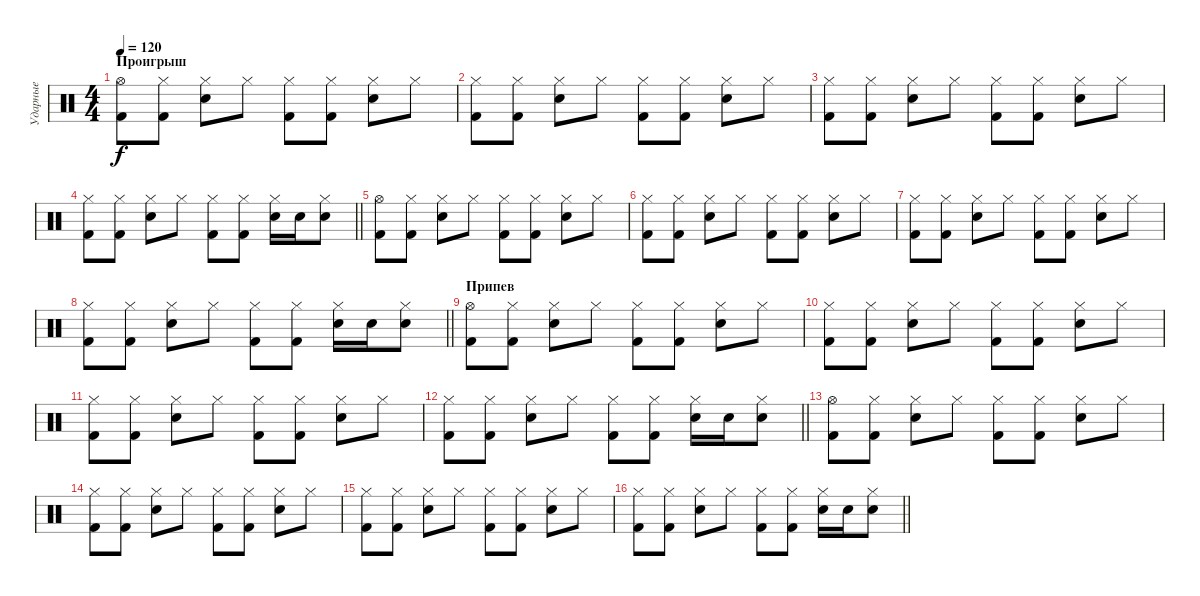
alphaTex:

\track ("Ударные" "Ударные") {instrument percussion}
\staff {score}
\articulation defaults
\ts (4 4)
\section ("" "Проигрыш")
\tempo 120
\clef neutral
\ks c
("Hi-Hat (open)" "Kick (hit) 2").8{dy f} ("Hi-Hat (closed)" "Kick (hit) 2").8 ("Hi-Hat (closed)" "Electric Snare (hit)").8 "Hi-Hat (closed)".8 ("Hi-Hat (closed)" "Kick (hit) 2").8 ("Hi-Hat (closed)" "Kick (hit) 2").8 ("Hi-Hat (closed)" "Electric Snare (hit)").8 "Hi-Hat (closed)".8 |
("Hi-Hat (closed)" "Kick (hit) 2").8 ("Hi-Hat (closed)" "Kick (hit) 2").8 ("Hi-Hat (closed)" "Electric Snare (hit)").8 "Hi-Hat (closed)".8 ("Hi-Hat (closed)" "Kick (hit) 2").8 ("Hi-Hat (closed)" "Kick (hit) 2").8 ("Hi-Hat (closed)" "Electric Snare (hit)").8 "Hi-Hat (closed)".8 |
("Hi-Hat (closed)" "Kick (hit) 2").8 ("Hi-Hat (closed)" "Kick (hit) 2").8 ("Hi-Hat (closed)" "Electric Snare (hit)").8 "Hi-Hat (closed)".8 ("Hi-Hat (closed)" "Kick (hit) 2").8 ("Hi-Hat (closed)" "Kick (hit) 2").8 ("Hi-Hat (closed)" "Electric Snare (hit)").8 "Hi-Hat (closed)".8 |
\barLineRight lightlight
("Hi-Hat (closed)" "Kick (hit) 2").8 ("Hi-Hat (closed)" "Kick (hit) 2").8 ("Hi-Hat (closed)" "Electric Snare (hit)").8 "Hi-Hat (closed)".8 ("Hi-Hat (closed)" "Kick (hit) 2").8 ("Hi-Hat (closed)" "Kick (hit) 2").8 ("Hi-Hat (closed)" "Electric Snare (hit)").16 "Snare (hit) 2".16 ("Hi-Hat (closed)" "Electric Snare (hit)").8 |
\section ("" "")
("Hi-Hat (open)" "Kick (hit) 2").8 ("Hi-Hat (closed)" "Kick (hit) 2").8 ("Hi-Hat (closed)" "Electric Snare (hit)").8 "Hi-Hat (closed)".8 ("Hi-Hat (closed)" "Kick (hit) 2").8 ("Hi-Hat (closed)" "Kick (hit) 2").8 ("Hi-Hat (closed)" "Electric Snare (hit)").8 "Hi-Hat (closed)".8 |
("Hi-Hat (closed)" "Kick (hit) 2").8 ("Hi-Hat (closed)" "Kick (hit) 2").8 ("Hi-Hat (closed)" "Electric Snare (hit)").8 "Hi-Hat (closed)".8 ("Hi-Hat (closed)" "Kick (hit) 2").8 ("Hi-Hat (closed)" "Kick (hit) 2").8 ("Hi-Hat (closed)" "Electric Snare (hit)").8 "Hi-Hat (closed)".8 |
("Hi-Hat (closed)" "Kick (hit) 2").8 ("Hi-Hat (closed)" "Kick (hit) 2").8 ("Hi-Hat (closed)" "Electric Snare (hit)").8 "Hi-Hat (closed)".8 ("Hi-Hat (closed)" "Kick (hit) 2").8 ("Hi-Hat (closed)" "Kick (hit) 2").8 ("Hi-Hat (closed)" "Electric Snare (hit)").8 "Hi-Hat (closed)".8 |
\barLineRight lightlight
("Hi-Hat (closed)" "Kick (hit) 2").8 ("Hi-Hat (closed)" "Kick (hit) 2").8 ("Hi-Hat (closed)" "Electric Snare (hit)").8 "Hi-Hat (closed)".8 ("Hi-Hat (closed)" "Kick (hit) 2").8 ("Hi-Hat (closed)" "Kick (hit) 2").8 ("Hi-Hat (closed)" "Electric Snare (hit)").16 "Snare (hit) 2".16 ("Hi-Hat (closed)" "Electric Snare (hit)").8 |
\section ("" "Припев")
("Hi-Hat (open)" "Kick (hit) 2").8 ("Hi-Hat (closed)" "Kick (hit) 2").8 ("Hi-Hat (closed)" "Electric Snare (hit)").8 "Hi-Hat (closed)".8 ("Hi-Hat (closed)" "Kick (hit) 2").8 ("Hi-Hat (closed)" "Kick (hit) 2").8 ("Hi-Hat (closed)" "Electric Snare (hit)").8 "Hi-Hat (closed)".8 |
("Hi-Hat (closed)" "Kick (hit) 2").8 ("Hi-Hat (closed)" "Kick (hit) 2").8 ("Hi-Hat (closed)" "Electric Snare (hit)").8 "Hi-Hat (closed)".8 ("Hi-Hat (closed)" "Kick (hit) 2").8 ("Hi-Hat (closed)" "Kick (hit) 2").8 ("Hi-Hat (closed)" "Electric Snare (hit)").8 "Hi-Hat (closed)".8 |
("Hi-Hat (closed)" "Kick (hit) 2").8 ("Hi-Hat (closed)" "Kick (hit) 2").8 ("Hi-Hat (closed)" "Electric Snare (hit)").8 "Hi-Hat (closed)".8 ("Hi-Hat (closed)" "Kick (hit) 2").8 ("Hi-Hat (closed)" "Kick (hit) 2").8 ("Hi-Hat (closed)" "Electric Snare (hit)").8 "Hi-Hat (closed)".8 |
\barLineRight lightlight
("Hi-Hat (closed)" "Kick (hit) 2").8 ("Hi-Hat (closed)" "Kick (hit) 2").8 ("Hi-Hat (closed)" "Electric Snare (hit)").8 "Hi-Hat (closed)".8 ("Hi-Hat (closed)" "Kick (hit) 2").8 ("Hi-Hat (closed)" "Kick (hit) 2").8 ("Hi-Hat (closed)" "Electric Snare (hit)").16 "Snare (hit) 2".16 ("Hi-Hat (closed)" "Electric Snare (hit)").8 |
\section ("" "")
("Hi-Hat (open)" "Kick (hit) 2").8 ("Hi-Hat (closed)" "Kick (hit) 2").8 ("Hi-Hat (closed)" "Electric Snare (hit)").8 "Hi-Hat (closed)".8 ("Hi-Hat (closed)" "Kick (hit) 2").8 ("Hi-Hat (closed)" "Kick (hit) 2").8 ("Hi-Hat (closed)" "Electric Snare (hit)").8 "Hi-Hat (closed)".8 |
("Hi-Hat (closed)" "Kick (hit) 2").8 ("Hi-Hat (closed)" "Kick (hit) 2").8 ("Hi-Hat (closed)" "Electric Snare (hit)").8 "Hi-Hat (closed)".8 ("Hi-Hat (closed)" "Kick (hit) 2").8 ("Hi-Hat (closed)" "Kick (hit) 2").8 ("Hi-Hat (closed)" "Electric Snare (hit)").8 "Hi-Hat (closed)".8 |
("Hi-Hat (closed)" "Kick (hit) 2").8 ("Hi-Hat (closed)" "Kick (hit) 2").8 ("Hi-Hat (closed)" "Electric Snare (hit)").8 "Hi-Hat (closed)".8 ("Hi-Hat (closed)" "Kick (hit) 2").8 ("Hi-Hat (closed)" "Kick (hit) 2").8 ("Hi-Hat (closed)" "Electric Snare (hit)").8 "Hi-Hat (closed)".8 |
\barLineRight lightlight
("Hi-Hat (closed)" "Kick (hit) 2").8 ("Hi-Hat (closed)" "Kick (hit) 2").8 ("Hi-Hat (closed)" "Electric Snare (hit)").8 "Hi-Hat (closed)".8 ("Hi-Hat (closed)" "Kick (hit) 2").8 ("Hi-Hat (closed)" "Kick (hit) 2").8 ("Hi-Hat (closed)" "Electric Snare (hit)").16 "Snare (hit) 2".16 ("Hi-Hat (closed)" "Electric Snare (hit)").8
